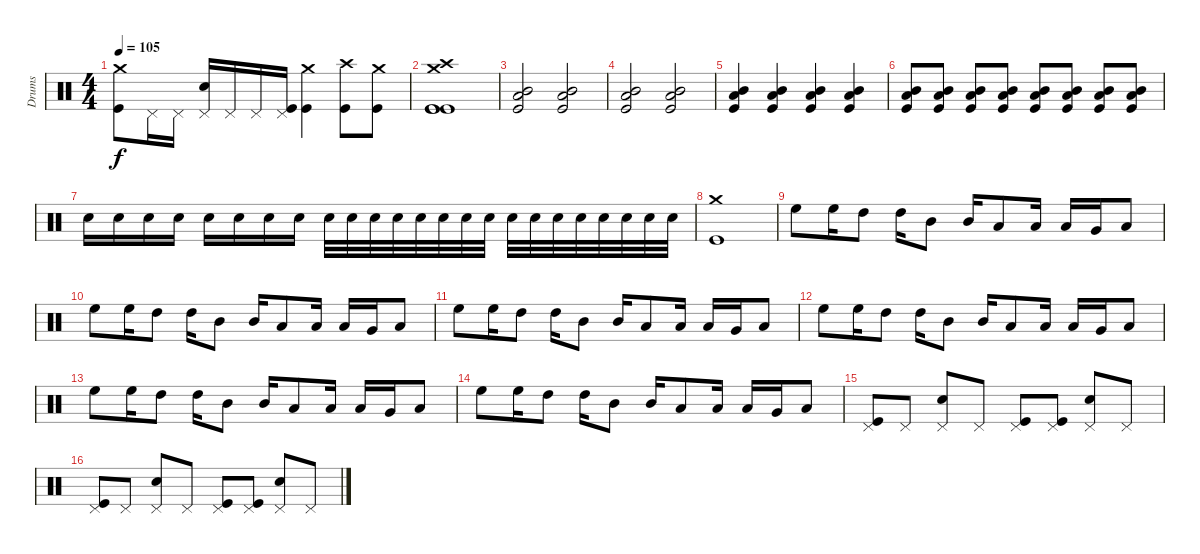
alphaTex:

\track ("Drums" "Drums") {instrument percussion}
\staff {score}
\articulation defaults
\ts (4 4)
\tempo 105
\clef neutral
\ks c
("Kick (hit)" "Crash medium (hit)").8{dy f} "Pedal Hi-Hat (hit)".16 "Pedal Hi-Hat (hit)".16 ("Snare (hit) 2" "Pedal Hi-Hat (hit)").16 "Pedal Hi-Hat (hit)".16 "Pedal Hi-Hat (hit)".16 ("Kick (hit)" "Pedal Hi-Hat (hit)").16 ("Kick (hit)" "Crash medium (hit)").4 ("Kick (hit)" "Crash high (hit)").8 ("Kick (hit)" "Crash medium (hit)").8 |
("Crash medium (hit)" "Kick (hit)" "Crash high (hit)" "Kick (hit)" "Kick (hit)").1 |
("Kick (hit)" "Low Tom (hit)" "Mid Tom (hit)").2 ("Kick (hit)" "Low Tom (hit)" "Mid Tom (hit)").2 |
("Kick (hit)" "Low Tom (hit)" "Mid Tom (hit)").2 ("Kick (hit)" "Low Tom (hit)" "Mid Tom (hit)").2 |
("Kick (hit)" "Low Tom (hit)" "Mid Tom (hit)").4 ("Kick (hit)" "Mid Tom (hit)" "Low Tom (hit)").4 ("Kick (hit)" "Low Tom (hit)" "Mid Tom (hit)").4 ("Kick (hit)" "Low Tom (hit)" "Mid Tom (hit)").4 |
("Kick (hit)" "Low Tom (hit)" "Mid Tom (hit)").8 ("Kick (hit)" "Low Tom (hit)" "Mid Tom (hit)").8 ("Kick (hit)" "Low Tom (hit)" "Mid Tom (hit)").8 ("Kick (hit)" "Low Tom (hit)" "Mid Tom (hit)").8 ("Kick (hit)" "Low Tom (hit)" "Mid Tom (hit)").8 ("Kick (hit)" "Low Tom (hit)" "Mid Tom (hit)").8 ("Kick (hit)" "Low Tom (hit)" "Mid Tom (hit)").8 ("Kick (hit)" "Low Tom (hit)" "Mid Tom (hit)").8 |
"Snare (hit) 2".16 "Snare (hit) 2".16 "Snare (hit) 2".16 "Snare (hit) 2".16 "Snare (hit) 2".16 "Snare (hit) 2".16 "Snare (hit) 2".16 "Snare (hit) 2".16 "Snare (hit) 2".32 "Snare (hit) 2".32 "Snare (hit) 2".32 "Snare (hit) 2".32 "Snare (hit) 2".32 "Snare (hit) 2".32 "Snare (hit) 2".32 "Snare (hit) 2".32 "Snare (hit) 2".32 "Snare (hit) 2".32 "Snare (hit) 2".32 "Snare (hit) 2".32 "Snare (hit) 2".32 "Snare (hit) 2".32 "Snare (hit) 2".32 "Snare (hit) 2".32 |
("Kick (hit)" "Crash medium (hit)").1 |
"High Floor Tom (hit)".8 "High Floor Tom (hit)".16 "High Tom (hit)".8 "High Tom (hit)".16 "Mid Tom (hit)".8 "Mid Tom (hit)".16 "Low Tom (hit)".8 "Low Tom (hit)".16 "Low Tom (hit)".16 "Very Low Tom (hit)".16 "Low Floor Tom (hit)".8 |
"High Floor Tom (hit)".8 "High Floor Tom (hit)".16 "High Tom (hit)".8 "High Tom (hit)".16 "Mid Tom (hit)".8 "Mid Tom (hit)".16 "Low Tom (hit)".8 "Low Tom (hit)".16 "Low Tom (hit)".16 "Very Low Tom (hit)".16 "Low Floor Tom (hit)".8 |
"High Floor Tom (hit)".8 "High Floor Tom (hit)".16 "High Tom (hit)".8 "High Tom (hit)".16 "Mid Tom (hit)".8 "Mid Tom (hit)".16 "Low Tom (hit)".8 "Low Tom (hit)".16 "Low Tom (hit)".16 "Very Low Tom (hit)".16 "Low Floor Tom (hit)".8 |
"High Floor Tom (hit)".8 "High Floor Tom (hit)".16 "High Tom (hit)".8 "High Tom (hit)".16 "Mid Tom (hit)".8 "Mid Tom (hit)".16 "Low Tom (hit)".8 "Low Tom (hit)".16 "Low Tom (hit)".16 "Very Low Tom (hit)".16 "Low Floor Tom (hit)".8 |
"High Floor Tom (hit)".8 "High Floor Tom (hit)".16 "High Tom (hit)".8 "High Tom (hit)".16 "Mid Tom (hit)".8 "Mid Tom (hit)".16 "Low Tom (hit)".8 "Low Tom (hit)".16 "Low Tom (hit)".16 "Very Low Tom (hit)".16 "Low Floor Tom (hit)".8 |
"High Floor Tom (hit)".8 "High Floor Tom (hit)".16 "High Tom (hit)".8 "High Tom (hit)".16 "Mid Tom (hit)".8 "Mid Tom (hit)".16 "Low Tom (hit)".8 "Low Tom (hit)".16 "Low Tom (hit)".16 "Very Low Tom (hit)".16 "Low Floor Tom (hit)".8 |
("Kick (hit)" "Pedal Hi-Hat (hit)").8 "Pedal Hi-Hat (hit)".8 ("Snare (hit) 2" "Pedal Hi-Hat (hit)").8 "Pedal Hi-Hat (hit)".8 ("Kick (hit)" "Pedal Hi-Hat (hit)").8 ("Kick (hit)" "Pedal Hi-Hat (hit)").8 ("Snare (hit) 2" "Pedal Hi-Hat (hit)").8 "Pedal Hi-Hat (hit)".8 |
("Kick (hit)" "Pedal Hi-Hat (hit)").8 "Pedal Hi-Hat (hit)".8 ("Snare (hit) 2" "Pedal Hi-Hat (hit)").8 "Pedal Hi-Hat (hit)".8 ("Kick (hit)" "Pedal Hi-Hat (hit)").8 ("Kick (hit)" "Pedal Hi-Hat (hit)").8 ("Snare (hit) 2" "Pedal Hi-Hat (hit)").8 "Pedal Hi-Hat (hit)".8
